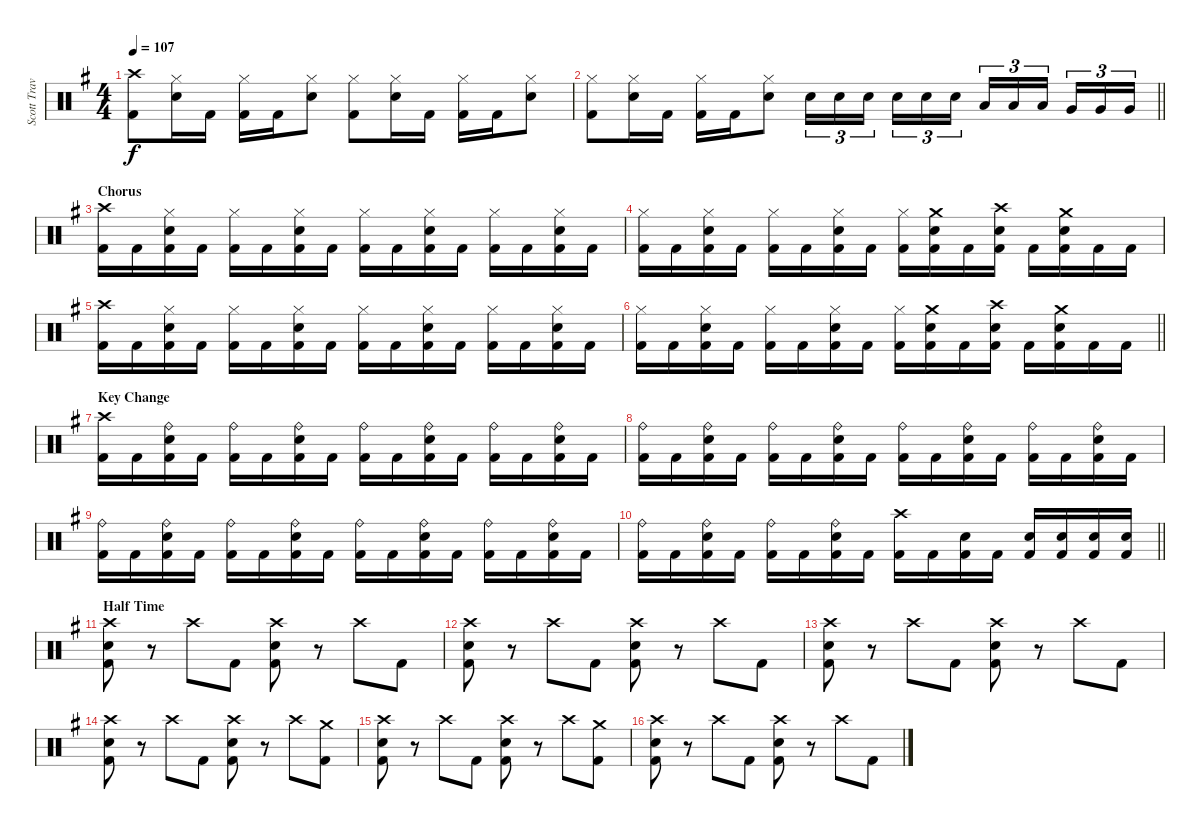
\track ("Scott Travis" "Scott Trav") {instrument percussion}
\staff {score}
\articulation defaults
\ts (4 4)
\tempo 107
\clef neutral
\ks eminor
("Crash high (hit)" "Kick (hit) 2").8{dy f} ("Hi-Hat (closed)" "Snare (hit) 2").16 "Kick (hit) 2".16 ("Hi-Hat (closed)" "Kick (hit) 2").16 "Kick (hit) 2".16 ("Hi-Hat (closed)" "Snare (hit) 2").8 ("Hi-Hat (closed)" "Kick (hit) 2").8 ("Hi-Hat (closed)" "Snare (hit) 2").16 "Kick (hit) 2".16 ("Hi-Hat (closed)" "Kick (hit) 2").16 "Kick (hit) 2".16 ("Hi-Hat (closed)" "Snare (hit) 2").8 |
\barLineRight lightlight
("Hi-Hat (closed)" "Kick (hit) 2").8 ("Hi-Hat (closed)" "Snare (hit) 2").16 "Kick (hit) 2".16 ("Hi-Hat (closed)" "Kick (hit) 2").16 "Kick (hit) 2".16 ("Hi-Hat (closed)" "Snare (hit) 2").8 "Snare (hit) 2".16{tu (3 2)} "Snare (hit) 2".16{tu (3 2)} "Snare (hit) 2".16{tu (3 2) beam splitsecondary} "Snare (hit) 2".16{tu (3 2)} "Snare (hit) 2".16{tu (3 2)} "Snare (hit) 2".16{tu (3 2)} "Low Tom (hit)".16{tu (3 2)} "Low Tom (hit)".16{tu (3 2)} "Low Tom (hit)".16{tu (3 2) beam splitsecondary} "Very Low Tom (hit)".16{tu (3 2)} "Very Low Tom (hit)".16{tu (3 2)} "Very Low Tom (hit)".16{tu (3 2)} |
\section ("" "Chorus")
("Crash high (hit)" "Kick (hit) 2").16 "Kick (hit) 2".16 ("Hi-Hat (closed)" "Snare (hit) 2" "Kick (hit) 2").16 "Kick (hit) 2".16 ("Hi-Hat (closed)" "Kick (hit) 2").16 "Kick (hit) 2".16 ("Hi-Hat (closed)" "Snare (hit) 2" "Kick (hit) 2").16 "Kick (hit) 2".16 ("Hi-Hat (closed)" "Kick (hit) 2").16 "Kick (hit) 2".16 ("Hi-Hat (closed)" "Snare (hit) 2" "Kick (hit) 2").16 "Kick (hit) 2".16 ("Hi-Hat (closed)" "Kick (hit) 2").16 "Kick (hit) 2".16 ("Hi-Hat (closed)" "Snare (hit) 2" "Kick (hit) 2").16 "Kick (hit) 2".16 |
("Hi-Hat (closed)" "Kick (hit) 2").16 "Kick (hit) 2".16 ("Hi-Hat (closed)" "Snare (hit) 2" "Kick (hit) 2").16 "Kick (hit) 2".16 ("Hi-Hat (closed)" "Kick (hit) 2").16 "Kick (hit) 2".16 ("Hi-Hat (closed)" "Snare (hit) 2" "Kick (hit) 2").16 "Kick (hit) 2".16 ("Hi-Hat (closed)" "Kick (hit) 2").16 ("Crash medium (hit)" "Snare (hit) 2" "Kick (hit) 2").16 "Kick (hit) 2".16 ("Crash high (hit)" "Snare (hit) 2" "Kick (hit) 2").16 "Kick (hit) 2".16 ("Crash medium (hit)" "Snare (hit) 2" "Kick (hit) 2").16 "Kick (hit) 2".16 "Kick (hit) 2".16 |
("Crash high (hit)" "Kick (hit) 2").16 "Kick (hit) 2".16 ("Hi-Hat (closed)" "Snare (hit) 2" "Kick (hit) 2").16 "Kick (hit) 2".16 ("Hi-Hat (closed)" "Kick (hit) 2").16 "Kick (hit) 2".16 ("Hi-Hat (closed)" "Snare (hit) 2" "Kick (hit) 2").16 "Kick (hit) 2".16 ("Hi-Hat (closed)" "Kick (hit) 2").16 "Kick (hit) 2".16 ("Hi-Hat (closed)" "Snare (hit) 2" "Kick (hit) 2").16 "Kick (hit) 2".16 ("Hi-Hat (closed)" "Kick (hit) 2").16 "Kick (hit) 2".16 ("Hi-Hat (closed)" "Snare (hit) 2" "Kick (hit) 2").16 "Kick (hit) 2".16 |
\barLineRight lightlight
("Hi-Hat (closed)" "Kick (hit) 2").16 "Kick (hit) 2".16 ("Hi-Hat (closed)" "Snare (hit) 2" "Kick (hit) 2").16 "Kick (hit) 2".16 ("Hi-Hat (closed)" "Kick (hit) 2").16 "Kick (hit) 2".16 ("Hi-Hat (closed)" "Snare (hit) 2" "Kick (hit) 2").16 "Kick (hit) 2".16 ("Hi-Hat (closed)" "Kick (hit) 2").16 ("Crash medium (hit)" "Snare (hit) 2" "Kick (hit) 2").16 "Kick (hit) 2".16 ("Crash high (hit)" "Snare (hit) 2" "Kick (hit) 2").16 "Kick (hit) 2".16 ("Crash medium (hit)" "Snare (hit) 2" "Kick (hit) 2").16 "Kick (hit) 2".16 "Kick (hit) 2".16 |
\section ("" "Key Change")
("Crash high (hit)" "Kick (hit) 2").16 "Kick (hit) 2".16 ("Ride (bell)" "Snare (hit) 2" "Kick (hit) 2").16 "Kick (hit) 2".16 ("Ride (bell)" "Kick (hit) 2").16 "Kick (hit) 2".16 ("Ride (bell)" "Snare (hit) 2" "Kick (hit) 2").16 "Kick (hit) 2".16 ("Ride (bell)" "Kick (hit) 2").16 "Kick (hit) 2".16 ("Ride (bell)" "Snare (hit) 2" "Kick (hit) 2").16 "Kick (hit) 2".16 ("Ride (bell)" "Kick (hit) 2").16 "Kick (hit) 2".16 ("Ride (bell)" "Snare (hit) 2" "Kick (hit) 2").16 "Kick (hit) 2".16 |
("Ride (bell)" "Kick (hit) 2").16 "Kick (hit) 2".16 ("Ride (bell)" "Snare (hit) 2" "Kick (hit) 2").16 "Kick (hit) 2".16 ("Ride (bell)" "Kick (hit) 2").16 "Kick (hit) 2".16 ("Ride (bell)" "Snare (hit) 2" "Kick (hit) 2").16 "Kick (hit) 2".16 ("Ride (bell)" "Kick (hit) 2").16 "Kick (hit) 2".16 ("Ride (bell)" "Snare (hit) 2" "Kick (hit) 2").16 "Kick (hit) 2".16 ("Ride (bell)" "Kick (hit) 2").16 "Kick (hit) 2".16 ("Ride (bell)" "Snare (hit) 2" "Kick (hit) 2").16 "Kick (hit) 2".16 |
("Ride (bell)" "Kick (hit) 2").16 "Kick (hit) 2".16 ("Ride (bell)" "Snare (hit) 2" "Kick (hit) 2").16 "Kick (hit) 2".16 ("Ride (bell)" "Kick (hit) 2").16 "Kick (hit) 2".16 ("Ride (bell)" "Snare (hit) 2" "Kick (hit) 2").16 "Kick (hit) 2".16 ("Ride (bell)" "Kick (hit) 2").16 "Kick (hit) 2".16 ("Ride (bell)" "Snare (hit) 2" "Kick (hit) 2").16 "Kick (hit) 2".16 ("Ride (bell)" "Kick (hit) 2").16 "Kick (hit) 2".16 ("Ride (bell)" "Snare (hit) 2" "Kick (hit) 2").16 "Kick (hit) 2".16 |
\barLineRight lightlight
("Ride (bell)" "Kick (hit) 2").16 "Kick (hit) 2".16 ("Ride (bell)" "Snare (hit) 2" "Kick (hit) 2").16 "Kick (hit) 2".16 ("Ride (bell)" "Kick (hit) 2").16 "Kick (hit) 2".16 ("Ride (bell)" "Snare (hit) 2" "Kick (hit) 2").16 "Kick (hit) 2".16 ("Crash high (hit)" "Kick (hit) 2").16 "Kick (hit) 2".16 ("Snare (hit) 2" "Kick (hit) 2").16 "Kick (hit) 2".16 ("Snare (hit) 2" "Kick (hit) 2").16 ("Snare (hit) 2" "Kick (hit) 2").16 ("Snare (hit) 2" "Kick (hit) 2").16 ("Snare (hit) 2" "Kick (hit) 2").16 |
\section ("" "Half Time")
("Crash high (hit)" "Snare (hit) 2" "Kick (hit) 2").8 r.8 "Crash high (hit)".8 "Kick (hit) 2".8 ("Crash high (hit)" "Snare (hit) 2" "Kick (hit) 2").8 r.8 "Crash high (hit)".8 "Kick (hit) 2".8 |
("Crash high (hit)" "Snare (hit) 2" "Kick (hit) 2").8 r.8 "Crash high (hit)".8 "Kick (hit) 2".8 ("Crash high (hit)" "Snare (hit) 2" "Kick (hit) 2").8 r.8 "Crash high (hit)".8 "Kick (hit) 2".8 |
("Crash high (hit)" "Snare (hit) 2" "Kick (hit) 2").8 r.8 "Crash high (hit)".8 "Kick (hit) 2".8 ("Crash high (hit)" "Snare (hit) 2" "Kick (hit) 2").8 r.8 "Crash high (hit)".8 "Kick (hit) 2".8 |
("Crash high (hit)" "Snare (hit) 2" "Kick (hit) 2").8 r.8 "Crash high (hit)".8 "Kick (hit) 2".8 ("Crash high (hit)" "Snare (hit) 2" "Kick (hit) 2").8 r.8 "Crash high (hit)".8 ("Crash medium (hit)" "Kick (hit) 2").8 |
("Crash high (hit)" "Snare (hit) 2" "Kick (hit) 2").8 r.8 "Crash high (hit)".8 "Kick (hit) 2".8 ("Crash high (hit)" "Snare (hit) 2" "Kick (hit) 2").8 r.8 "Crash high (hit)".8 ("Crash medium (hit)" "Kick (hit) 2").8 |
("Crash high (hit)" "Snare (hit) 2" "Kick (hit) 2").8 r.8 "Crash high (hit)".8 "Kick (hit) 2".8 ("Crash high (hit)" "Snare (hit) 2" "Kick (hit) 2").8 r.8 "Crash high (hit)".8 "Kick (hit) 2".8
